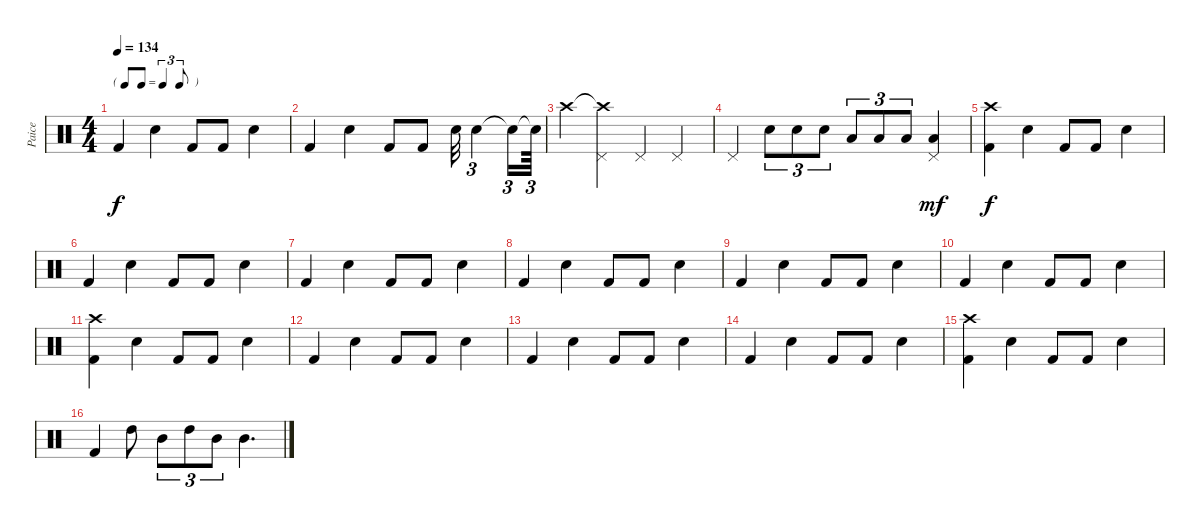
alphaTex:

\track ("Paice" "Paice") {instrument percussion}
\staff {score}
\articulation defaults
\ts (4 4)
\tf triplet8th
\tempo 134
\clef neutral
\ks c "Kick (hit) 2".4{dy f} "Electric Snare (hit)".4 "Kick (hit) 2".8 "Kick (hit) 2".8 "Electric Snare (hit)".4
|
"Kick (hit) 2".4 "Electric Snare (hit)".4 "Kick (hit) 2".8 "Kick (hit) 2".8 "Electric Snare (hit)".32 "Electric Snare (hit)".4{tu (3 2)} "Electric Snare (hit)"{t}.16{tu (3 2)} "Electric Snare (hit)"{t}.64{tu (3 2)} |
"Crash high (hit)".4 ("Crash high (hit)"{t} "Pedal Hi-Hat (hit)").4 "Pedal Hi-Hat (hit)".4 "Pedal Hi-Hat (hit)".4 |
"Pedal Hi-Hat (hit)".4 "Electric Snare (hit)".8{tu (3 2)} "Electric Snare (hit)".8{tu (3 2)} "Electric Snare (hit)".8{tu (3 2)} "Low Tom (hit)".8{tu (3 2)} "Low Tom (hit)".8{tu (3 2)} "Low Tom (hit)".8{tu (3 2)} ("Low Tom (hit)" "Pedal Hi-Hat (hit)").4{dy mf} |
("Kick (hit) 2" "Crash high (hit)").4{dy f} "Electric Snare (hit)".4 "Kick (hit) 2".8 "Kick (hit) 2".8 "Electric Snare (hit)".4 |
"Kick (hit) 2".4 "Electric Snare (hit)".4 "Kick (hit) 2".8 "Kick (hit) 2".8 "Electric Snare (hit)".4 |
"Kick (hit) 2".4 "Electric Snare (hit)".4 "Kick (hit) 2".8 "Kick (hit) 2".8 "Electric Snare (hit)".4 |
"Kick (hit) 2".4 "Electric Snare (hit)".4 "Kick (hit) 2".8 "Kick (hit) 2".8 "Electric Snare (hit)".4 |
"Kick (hit) 2".4 "Electric Snare (hit)".4 "Kick (hit) 2".8 "Kick (hit) 2".8 "Electric Snare (hit)".4 |
"Kick (hit) 2".4 "Electric Snare (hit)".4 "Kick (hit) 2".8 "Kick (hit) 2".8 "Electric Snare (hit)".4 |
("Kick (hit) 2" "Crash high (hit)").4 "Electric Snare (hit)".4 "Kick (hit) 2".8 "Kick (hit) 2".8 "Electric Snare (hit)".4 |
"Kick (hit) 2".4 "Electric Snare (hit)".4 "Kick (hit) 2".8 "Kick (hit) 2".8 "Electric Snare (hit)".4 |
"Kick (hit) 2".4 "Electric Snare (hit)".4 "Kick (hit) 2".8 "Kick (hit) 2".8 "Electric Snare (hit)".4 |
"Kick (hit) 2".4 "Electric Snare (hit)".4 "Kick (hit) 2".8 "Kick (hit) 2".8 "Electric Snare (hit)".4 |
("Kick (hit) 2" "Crash high (hit)").4 "Electric Snare (hit)".4 "Kick (hit) 2".8 "Kick (hit) 2".8 "Electric Snare (hit)".4 |
"Kick (hit) 2".4 "High Tom (hit)".8 "Mid Tom (hit)".8{tu (3 2)} "High Tom (hit)".8{tu (3 2)} "Mid Tom (hit)".8{tu (3 2)} "Mid Tom (hit)".4{d}
